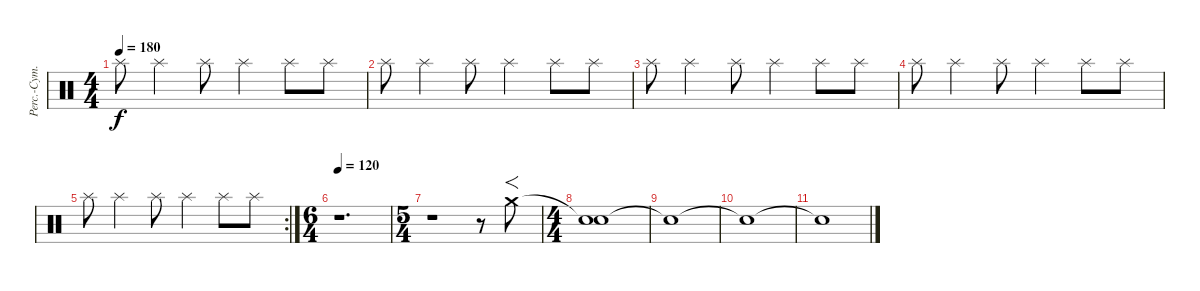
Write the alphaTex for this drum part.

\track ("Perc.-Cym. 2" "Perc.-Cym.") {instrument percussion}
\staff {score}
\articulation defaults
\ts (4 4)
\tempo 180
\clef neutral
\ks c "Splash (hit)".8{dy f} "Splash (hit)".4 "Splash (hit)".8 "Splash (hit)".4 "Splash (hit)".8 "Splash (hit)".8
|
"Splash (hit)".8 "Splash (hit)".4 "Splash (hit)".8 "Splash (hit)".4 "Splash (hit)".8 "Splash (hit)".8 |
"Splash (hit)".8 "Splash (hit)".4 "Splash (hit)".8 "Splash (hit)".4 "Splash (hit)".8 "Splash (hit)".8 |
"Splash (hit)".8 "Splash (hit)".4 "Splash (hit)".8 "Splash (hit)".4 "Splash (hit)".8 "Splash (hit)".8 |
\rc 2 "Splash (hit)".8 "Splash (hit)".4 "Splash (hit)".8 "Splash (hit)".4 "Splash (hit)".8 "Splash (hit)".8
|
\ts (6 4)
\tempo 120
r.1{d} |
\ts (5 4)
r.1 r.8 "Crash medium (hit)".8{f} |
\ts (4 4)
("Snare (hit)"{t} "Snare (hit)").1 |
"Snare (hit)"{t}.1{volume 0} |
"Snare (hit)"{t}.1 |
"Snare (hit)"{t}.1
